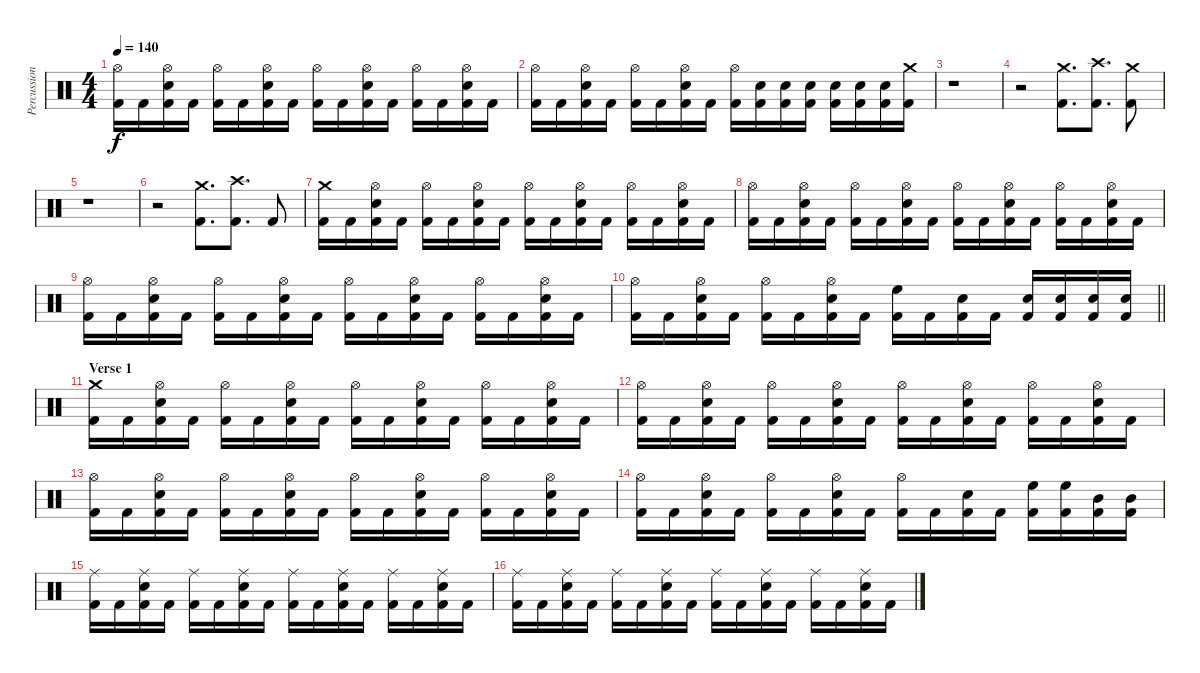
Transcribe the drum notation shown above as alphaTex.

\track ("Percussion" "Percussion") {instrument percussion}
\staff {score}
\articulation defaults
\ts (4 4)
\tempo 140
\clef neutral
\ks c
("Kick (hit) 2" "Hi-Hat (open)").16{dy f} "Kick (hit) 2".16 ("Kick (hit) 2" "Electric Snare (hit)" "Hi-Hat (open)").16 "Kick (hit) 2".16 ("Kick (hit) 2" "Hi-Hat (open)").16 "Kick (hit) 2".16 ("Kick (hit) 2" "Electric Snare (hit)" "Hi-Hat (open)").16 "Kick (hit) 2".16 ("Kick (hit) 2" "Hi-Hat (open)").16 "Kick (hit) 2".16 ("Kick (hit) 2" "Electric Snare (hit)" "Hi-Hat (open)").16 "Kick (hit) 2".16 ("Kick (hit) 2" "Hi-Hat (open)").16 "Kick (hit) 2".16 ("Kick (hit) 2" "Electric Snare (hit)" "Hi-Hat (open)").16 "Kick (hit) 2".16 |
("Kick (hit) 2" "Hi-Hat (open)").16 "Kick (hit) 2".16 ("Kick (hit) 2" "Electric Snare (hit)" "Hi-Hat (open)").16 "Kick (hit) 2".16 ("Kick (hit) 2" "Hi-Hat (open)").16 "Kick (hit) 2".16 ("Kick (hit) 2" "Electric Snare (hit)" "Hi-Hat (open)").16 "Kick (hit) 2".16 ("Kick (hit) 2" "Hi-Hat (open)").16 ("Kick (hit) 2" "Electric Snare (hit)").16 ("Kick (hit) 2" "Electric Snare (hit)").16 ("Kick (hit) 2" "Electric Snare (hit)").16 ("Kick (hit) 2" "Electric Snare (hit)").16 ("Kick (hit) 2" "Electric Snare (hit)").16 ("Kick (hit) 2" "Electric Snare (hit)").16 ("Kick (hit) 2" "Crash medium (hit)").16 |
r.1 |
r.2 ("Kick (hit) 2" "Crash medium (hit)").8{d} ("Kick (hit) 2" "Crash high (hit)").8{d} ("Kick (hit) 2" "Crash medium (hit)").8 |
r.1 |
r.2 ("Kick (hit) 2" "Crash medium (hit)").8{d} ("Kick (hit) 2" "Crash high (hit)").8{d} "Kick (hit) 2".8 |
("Kick (hit) 2" "Crash medium (hit)").16 "Kick (hit) 2".16 ("Kick (hit) 2" "Electric Snare (hit)" "Hi-Hat (open)").16 "Kick (hit) 2".16 ("Kick (hit) 2" "Hi-Hat (open)").16 "Kick (hit) 2".16 ("Kick (hit) 2" "Electric Snare (hit)" "Hi-Hat (open)").16 "Kick (hit) 2".16 ("Kick (hit) 2" "Hi-Hat (open)").16 "Kick (hit) 2".16 ("Kick (hit) 2" "Electric Snare (hit)" "Hi-Hat (open)").16 "Kick (hit) 2".16 ("Kick (hit) 2" "Hi-Hat (open)").16 "Kick (hit) 2".16 ("Kick (hit) 2" "Electric Snare (hit)" "Hi-Hat (open)").16 "Kick (hit) 2".16 |
("Kick (hit) 2" "Hi-Hat (open)").16 "Kick (hit) 2".16 ("Kick (hit) 2" "Electric Snare (hit)" "Hi-Hat (open)").16 "Kick (hit) 2".16 ("Kick (hit) 2" "Hi-Hat (open)").16 "Kick (hit) 2".16 ("Kick (hit) 2" "Electric Snare (hit)" "Hi-Hat (open)").16 "Kick (hit) 2".16 ("Kick (hit) 2" "Hi-Hat (open)").16 "Kick (hit) 2".16 ("Kick (hit) 2" "Electric Snare (hit)" "Hi-Hat (open)").16 "Kick (hit) 2".16 ("Kick (hit) 2" "Hi-Hat (open)").16 "Kick (hit) 2".16 ("Kick (hit) 2" "Electric Snare (hit)" "Hi-Hat (open)").16 "Kick (hit) 2".16 |
("Kick (hit) 2" "Hi-Hat (open)").16 "Kick (hit) 2".16 ("Kick (hit) 2" "Electric Snare (hit)" "Hi-Hat (open)").16 "Kick (hit) 2".16 ("Kick (hit) 2" "Hi-Hat (open)").16 "Kick (hit) 2".16 ("Kick (hit) 2" "Electric Snare (hit)" "Hi-Hat (open)").16 "Kick (hit) 2".16 ("Kick (hit) 2" "Hi-Hat (open)").16 "Kick (hit) 2".16 ("Kick (hit) 2" "Electric Snare (hit)" "Hi-Hat (open)").16 "Kick (hit) 2".16 ("Kick (hit) 2" "Hi-Hat (open)").16 "Kick (hit) 2".16 ("Kick (hit) 2" "Electric Snare (hit)" "Hi-Hat (open)").16 "Kick (hit) 2".16 |
\barLineRight lightlight
("Kick (hit) 2" "Hi-Hat (open)").16 "Kick (hit) 2".16 ("Kick (hit) 2" "Electric Snare (hit)" "Hi-Hat (open)").16 "Kick (hit) 2".16 ("Kick (hit) 2" "Hi-Hat (open)").16 "Kick (hit) 2".16 ("Kick (hit) 2" "Electric Snare (hit)" "Hi-Hat (open)").16 "Kick (hit) 2".16 ("Kick (hit) 2" "High Floor Tom (hit)").16 "Kick (hit) 2".16 ("Kick (hit) 2" "Electric Snare (hit)").16 "Kick (hit) 2".16 ("Kick (hit) 2" "Electric Snare (hit)").16 ("Kick (hit) 2" "Electric Snare (hit)").16 ("Kick (hit) 2" "Electric Snare (hit)").16 ("Kick (hit) 2" "Electric Snare (hit)").16 |
\section ("" "Verse 1")
("Kick (hit) 2" "Crash medium (hit)").16 "Kick (hit) 2".16 ("Kick (hit) 2" "Electric Snare (hit)" "Hi-Hat (open)").16 "Kick (hit) 2".16 ("Kick (hit) 2" "Hi-Hat (open)").16 "Kick (hit) 2".16 ("Kick (hit) 2" "Electric Snare (hit)" "Hi-Hat (open)").16 "Kick (hit) 2".16 ("Kick (hit) 2" "Hi-Hat (open)").16 "Kick (hit) 2".16 ("Kick (hit) 2" "Electric Snare (hit)" "Hi-Hat (open)").16 "Kick (hit) 2".16 ("Kick (hit) 2" "Hi-Hat (open)").16 "Kick (hit) 2".16 ("Kick (hit) 2" "Electric Snare (hit)" "Hi-Hat (open)").16 "Kick (hit) 2".16 |
("Kick (hit) 2" "Hi-Hat (open)").16 "Kick (hit) 2".16 ("Kick (hit) 2" "Electric Snare (hit)" "Hi-Hat (open)").16 "Kick (hit) 2".16 ("Kick (hit) 2" "Hi-Hat (open)").16 "Kick (hit) 2".16 ("Kick (hit) 2" "Electric Snare (hit)" "Hi-Hat (open)").16 "Kick (hit) 2".16 ("Kick (hit) 2" "Hi-Hat (open)").16 "Kick (hit) 2".16 ("Kick (hit) 2" "Electric Snare (hit)" "Hi-Hat (open)").16 "Kick (hit) 2".16 ("Kick (hit) 2" "Hi-Hat (open)").16 "Kick (hit) 2".16 ("Kick (hit) 2" "Electric Snare (hit)" "Hi-Hat (open)").16 "Kick (hit) 2".16 |
("Kick (hit) 2" "Hi-Hat (open)").16 "Kick (hit) 2".16 ("Kick (hit) 2" "Electric Snare (hit)" "Hi-Hat (open)").16 "Kick (hit) 2".16 ("Kick (hit) 2" "Hi-Hat (open)").16 "Kick (hit) 2".16 ("Kick (hit) 2" "Electric Snare (hit)" "Hi-Hat (open)").16 "Kick (hit) 2".16 ("Kick (hit) 2" "Hi-Hat (open)").16 "Kick (hit) 2".16 ("Kick (hit) 2" "Electric Snare (hit)" "Hi-Hat (open)").16 "Kick (hit) 2".16 ("Kick (hit) 2" "Hi-Hat (open)").16 "Kick (hit) 2".16 ("Kick (hit) 2" "Electric Snare (hit)" "Hi-Hat (open)").16 "Kick (hit) 2".16 |
("Kick (hit) 2" "Hi-Hat (open)").16 "Kick (hit) 2".16 ("Kick (hit) 2" "Electric Snare (hit)" "Hi-Hat (open)").16 "Kick (hit) 2".16 ("Kick (hit) 2" "Hi-Hat (open)").16 "Kick (hit) 2".16 ("Kick (hit) 2" "Electric Snare (hit)" "Hi-Hat (open)").16 "Kick (hit) 2".16 ("Kick (hit) 2" "Hi-Hat (open)").16 "Kick (hit) 2".16 ("Kick (hit) 2" "Electric Snare (hit)").16 "Kick (hit) 2".16 ("Kick (hit) 2" "High Floor Tom (hit)").16 ("Kick (hit) 2" "High Floor Tom (hit)").16 ("Kick (hit) 2" "Mid Tom (hit)").16 ("Kick (hit) 2" "Mid Tom (hit)").16 |
("Kick (hit) 2" "Ride (middle)").16 "Kick (hit) 2".16 ("Kick (hit) 2" "Electric Snare (hit)" "Ride (middle)").16 "Kick (hit) 2".16 ("Kick (hit) 2" "Ride (middle)").16 "Kick (hit) 2".16 ("Kick (hit) 2" "Electric Snare (hit)" "Ride (middle)").16 "Kick (hit) 2".16 ("Kick (hit) 2" "Ride (middle)").16 "Kick (hit) 2".16 ("Kick (hit) 2" "Electric Snare (hit)" "Ride (middle)").16 "Kick (hit) 2".16 ("Kick (hit) 2" "Ride (middle)").16 "Kick (hit) 2".16 ("Kick (hit) 2" "Electric Snare (hit)" "Ride (middle)").16 "Kick (hit) 2".16 |
("Kick (hit) 2" "Ride (middle)").16 "Kick (hit) 2".16 ("Kick (hit) 2" "Electric Snare (hit)" "Ride (middle)").16 "Kick (hit) 2".16 ("Kick (hit) 2" "Ride (middle)").16 "Kick (hit) 2".16 ("Kick (hit) 2" "Electric Snare (hit)" "Ride (middle)").16 "Kick (hit) 2".16 ("Kick (hit) 2" "Ride (middle)").16 "Kick (hit) 2".16 ("Kick (hit) 2" "Electric Snare (hit)" "Ride (middle)").16 "Kick (hit) 2".16 ("Kick (hit) 2" "Ride (middle)").16 "Kick (hit) 2".16 ("Kick (hit) 2" "Electric Snare (hit)" "Ride (middle)").16 "Kick (hit) 2".16
